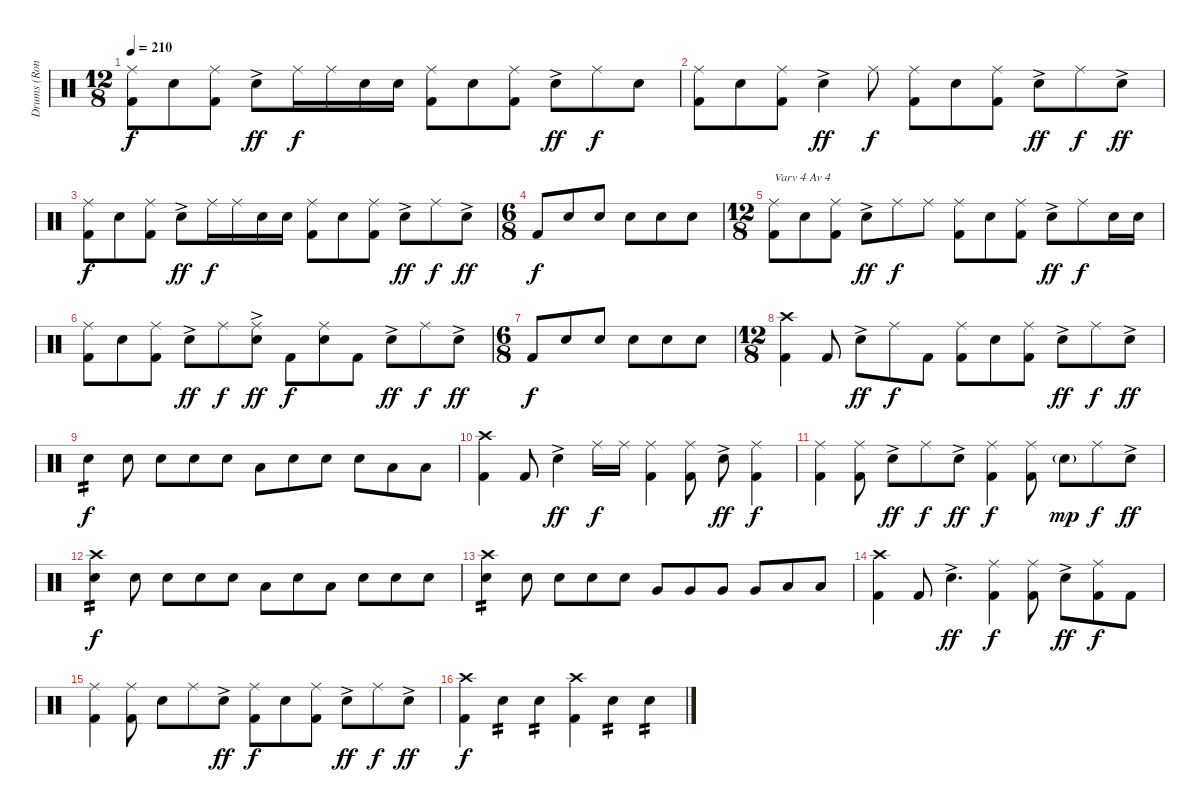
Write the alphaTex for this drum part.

\track ("Drums (Ronny)" "Drums (Ron") {instrument percussion}
\staff {score}
\articulation defaults
\ts (12 8)
\tempo 210
\clef neutral
\ks c
("Ride (middle)" "Kick (hit) 2").8{dy f} "Snare (hit) 2".8 ("Ride (middle)" "Kick (hit) 2").8 "Snare (hit) 2"{ac}.8{dy ff} "Ride (middle)".16{dy f} "Ride (middle)".16 "Snare (hit) 2".16 "Snare (hit) 2".16 ("Ride (middle)" "Kick (hit) 2").8 "Snare (hit) 2".8 ("Ride (middle)" "Kick (hit) 2").8 "Snare (hit) 2"{ac}.8{dy ff} "Ride (middle)".8{dy f} "Snare (hit) 2".8 |
("Ride (middle)" "Kick (hit) 2").8 "Snare (hit) 2".8 ("Ride (middle)" "Kick (hit) 2").8 "Snare (hit) 2"{ac}.4{dy ff} "Ride (middle)".8{dy f} ("Ride (middle)" "Kick (hit) 2").8 "Snare (hit) 2".8 ("Ride (middle)" "Kick (hit) 2").8 "Snare (hit) 2"{ac}.8{dy ff} "Ride (middle)".8{dy f} "Snare (hit) 2"{ac}.8{dy ff} |
("Ride (middle)" "Kick (hit) 2").8{dy f} "Snare (hit) 2".8 ("Ride (middle)" "Kick (hit) 2").8 "Snare (hit) 2"{ac}.8{dy ff} "Ride (middle)".16{dy f} "Ride (middle)".16 "Snare (hit) 2".16 "Snare (hit) 2".16 ("Ride (middle)" "Kick (hit) 2").8 "Snare (hit) 2".8 ("Ride (middle)" "Kick (hit) 2").8 "Snare (hit) 2"{ac}.8{dy ff} "Ride (middle)".8{dy f} "Snare (hit) 2"{ac}.8{dy ff} |
\ts (6 8)
"Kick (hit) 2".8{dy f} "Snare (hit) 2".8 "Snare (hit) 2".8 "Snare (hit) 2".8 "Snare (hit) 2".8 "Snare (hit) 2".8 |
\ts (12 8)
("Ride (middle)" "Kick (hit) 2").8{txt "Varv 4 Av 4"} "Snare (hit) 2".8 ("Ride (middle)" "Kick (hit) 2").8 "Snare (hit) 2"{ac}.8{dy ff} "Ride (middle)".8{dy f} "Ride (middle)".8 ("Ride (middle)" "Kick (hit) 2").8 "Snare (hit) 2".8 ("Ride (middle)" "Kick (hit) 2").8 "Snare (hit) 2"{ac}.8{dy ff} "Ride (middle)".8{dy f} "Snare (hit) 2".16 "Snare (hit) 2".16 |
("Ride (middle)" "Kick (hit) 2").8 "Snare (hit) 2".8 ("Ride (middle)" "Kick (hit) 2").8 "Snare (hit) 2"{ac}.8{dy ff} "Ride (middle)".8{dy f} ("Ride (middle)" "Snare (hit) 2"{ac}).8{dy ff} "Kick (hit) 2".8{dy f} ("Ride (middle)" "Snare (hit) 2").8 "Kick (hit) 2".8 "Snare (hit) 2"{ac}.8{dy ff} "Ride (middle)".8{dy f} "Snare (hit) 2"{ac}.8{dy ff} |
\ts (6 8)
"Kick (hit) 2".8{dy f} "Snare (hit) 2".8 "Snare (hit) 2".8 "Snare (hit) 2".8 "Snare (hit) 2".8 "Snare (hit) 2".8 |
\ts (12 8)
("Crash high (hit)" "Kick (hit) 2").4 "Kick (hit) 2".8 "Snare (hit) 2"{ac}.8{dy ff} "Ride (middle)".8{dy f} "Kick (hit) 2".8 ("Ride (middle)" "Kick (hit) 2").8 "Snare (hit) 2".8 ("Ride (middle)" "Kick (hit) 2").8 "Snare (hit) 2"{ac}.8{dy ff} "Ride (middle)".8{dy f} "Snare (hit) 2"{ac}.8{dy ff} |
"Snare (hit) 2".4{tp 2 dy f} "Snare (hit) 2".8 "Snare (hit) 2".8 "Snare (hit) 2".8 "Snare (hit) 2".8 "Low Tom (hit)".8 "Snare (hit) 2".8 "Snare (hit) 2".8 "Snare (hit) 2".8 "Low Floor Tom (hit)".8 "Low Floor Tom (hit)".8 |
("Crash high (hit)" "Kick (hit) 2").4 "Kick (hit) 2".8 "Snare (hit) 2"{ac}.4{dy ff} "Ride (middle)".16{dy f} "Ride (middle)".16 ("Ride (middle)" "Kick (hit) 2").4 ("Ride (middle)" "Kick (hit) 2").8 "Snare (hit) 2"{ac}.8{dy ff} ("Ride (middle)" "Kick (hit) 2").4{dy f} |
("Ride (middle)" "Kick (hit) 2").4 ("Ride (middle)" "Kick (hit) 2").8 "Snare (hit) 2"{ac}.8{dy ff} "Ride (middle)".8{dy f} "Snare (hit) 2"{ac}.8{dy ff} ("Ride (middle)" "Kick (hit) 2").4{dy f} ("Ride (middle)" "Kick (hit) 2").8 "Snare (hit) 2"{g}.8{dy mp} "Ride (middle)".8{dy f} "Snare (hit) 2"{ac}.8{dy ff} |
("Crash high (hit)" "Snare (hit) 2").4{tp 2 dy f} "Snare (hit) 2".8 "Snare (hit) 2".8 "Snare (hit) 2".8 "Snare (hit) 2".8 "Low Floor Tom (hit)".8 "Snare (hit) 2".8 "Low Floor Tom (hit)".8 "Snare (hit) 2".8 "Snare (hit) 2".8 "Snare (hit) 2".8 |
("Crash high (hit)" "Snare (hit) 2").4{tp 2} "Snare (hit) 2".8 "Snare (hit) 2".8 "Snare (hit) 2".8 "Snare (hit) 2".8 "Very Low Tom (hit)".8 "Very Low Tom (hit)".8 "Very Low Tom (hit)".8 "Very Low Tom (hit)".8 "Low Floor Tom (hit)".8 "Low Floor Tom (hit)".8 |
("Crash high (hit)" "Kick (hit) 2").4 "Kick (hit) 2".8 "Snare (hit) 2"{ac}.4{d dy ff} ("Ride (middle)" "Kick (hit) 2").4{dy f} ("Ride (middle)" "Kick (hit) 2").8 "Snare (hit) 2"{ac}.8{dy ff} ("Ride (middle)" "Kick (hit) 2").8{dy f} "Kick (hit) 2".8 |
("Ride (middle)" "Kick (hit) 2").4 ("Ride (middle)" "Kick (hit) 2").8 "Snare (hit) 2".8 "Ride (middle)".8 "Snare (hit) 2"{ac}.8{dy ff} ("Ride (middle)" "Kick (hit) 2").8{dy f} "Snare (hit) 2".8 ("Ride (middle)" "Kick (hit) 2").8 "Snare (hit) 2"{ac}.8{dy ff} "Ride (middle)".8{dy f} "Snare (hit) 2"{ac}.8{dy ff} |
("Crash high (hit)" "Kick (hit) 2").4{dy f} "Snare (hit) 2".4{tp 2} "Snare (hit) 2".4{tp 2} ("Crash high (hit)" "Kick (hit) 2").4 "Snare (hit) 2".4{tp 2} "Snare (hit) 2".4{tp 2}
